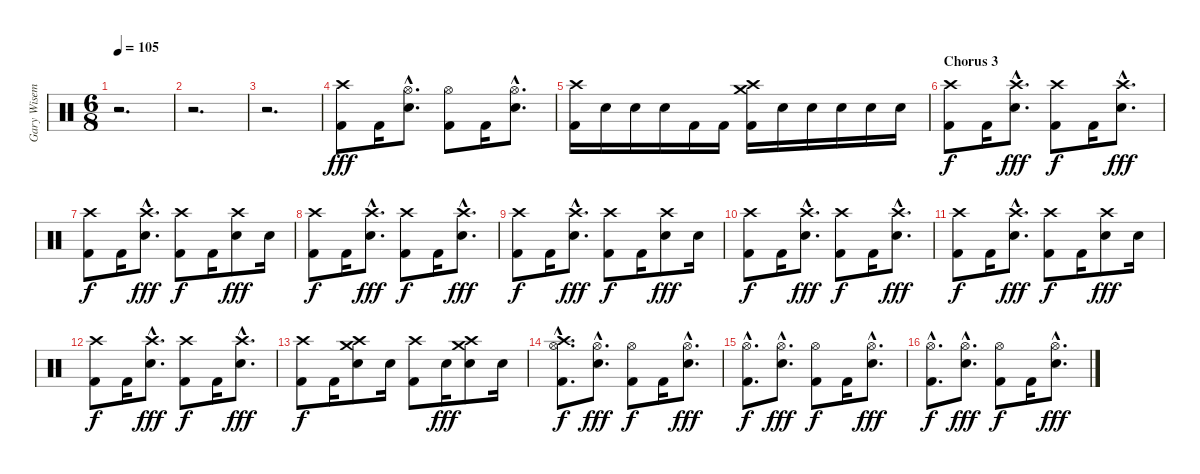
\track ("Gary Wiseman - Drums" "Gary Wisem") {instrument percussion}
\staff {score}
\articulation defaults
\ts (6 8)
\tempo 105
\clef neutral
\ks c
r.2{d dy f} |
r.2{d} |
r.2{d} |
("Crash high (hit)" "Kick (hit) 2").8{dy fff} "Kick (hit) 2".16 ("Hi-Hat (open)"{hac} "Electric Snare (hit)"{hac}).8{d} ("Hi-Hat (open)" "Kick (hit) 2").8 "Kick (hit) 2".16 ("Hi-Hat (open)"{hac} "Electric Snare (hit)"{hac}).8{d} |
("Crash high (hit)" "Kick (hit) 2").16 "Electric Snare (hit)".16 "Electric Snare (hit)".16 "Electric Snare (hit)".16 "Kick (hit) 2".16 "Kick (hit) 2".16 ("Crash medium (hit)" "Crash high (hit)" "Kick (hit) 2").16 "Electric Snare (hit)".16 "Electric Snare (hit)".16 "Electric Snare (hit)".16 "Electric Snare (hit)".16 "Electric Snare (hit)".16 |
\section ("" "Chorus 3")
("Crash high (hit)" "Kick (hit) 2").8{dy f} "Kick (hit) 2".16 ("Crash high (hit)"{hac} "Electric Snare (hit)"{hac}).8{d dy fff} ("Crash high (hit)" "Kick (hit) 2").8{dy f} "Kick (hit) 2".16 ("Crash high (hit)"{hac} "Electric Snare (hit)"{hac}).8{d dy fff} |
("Crash high (hit)" "Kick (hit) 2").8{dy f} "Kick (hit) 2".16 ("Crash high (hit)"{hac} "Electric Snare (hit)"{hac}).8{d dy fff} ("Crash high (hit)" "Kick (hit) 2").8{dy f} "Kick (hit) 2".16 ("Crash high (hit)" "Electric Snare (hit)").8{dy fff} "Electric Snare (hit)".16 |
("Crash high (hit)" "Kick (hit) 2").8{dy f} "Kick (hit) 2".16 ("Crash high (hit)"{hac} "Electric Snare (hit)"{hac}).8{d dy fff} ("Crash high (hit)" "Kick (hit) 2").8{dy f} "Kick (hit) 2".16 ("Crash high (hit)"{hac} "Electric Snare (hit)"{hac}).8{d dy fff} |
("Crash high (hit)" "Kick (hit) 2").8{dy f} "Kick (hit) 2".16 ("Crash high (hit)"{hac} "Electric Snare (hit)"{hac}).8{d dy fff} ("Crash high (hit)" "Kick (hit) 2").8{dy f} "Kick (hit) 2".16 ("Crash high (hit)" "Electric Snare (hit)").8{dy fff} "Electric Snare (hit)".16 |
("Crash high (hit)" "Kick (hit) 2").8{dy f} "Kick (hit) 2".16 ("Crash high (hit)"{hac} "Electric Snare (hit)"{hac}).8{d dy fff} ("Crash high (hit)" "Kick (hit) 2").8{dy f} "Kick (hit) 2".16 ("Crash high (hit)"{hac} "Electric Snare (hit)"{hac}).8{d dy fff} |
("Crash high (hit)" "Kick (hit) 2").8{dy f} "Kick (hit) 2".16 ("Crash high (hit)"{hac} "Electric Snare (hit)"{hac}).8{d dy fff} ("Crash high (hit)" "Kick (hit) 2").8{dy f} "Kick (hit) 2".16 ("Crash high (hit)" "Electric Snare (hit)").8{dy fff} "Electric Snare (hit)".16 |
("Crash high (hit)" "Kick (hit) 2").8{dy f} "Kick (hit) 2".16 ("Crash high (hit)"{hac} "Electric Snare (hit)"{hac}).8{d dy fff} ("Crash high (hit)" "Kick (hit) 2").8{dy f} "Kick (hit) 2".16 ("Crash high (hit)"{hac} "Electric Snare (hit)"{hac}).8{d dy fff} |
("Crash high (hit)" "Kick (hit) 2").8{dy f} "Kick (hit) 2".16 ("Crash medium (hit)" "Crash high (hit)" "Electric Snare (hit)").8 "Electric Snare (hit)".16 ("Crash high (hit)" "Kick (hit) 2").8 "Electric Snare (hit)".16{dy fff} ("Crash medium (hit)" "Crash high (hit)" "Electric Snare (hit)").8 "Electric Snare (hit)".16 |
("Crash high (hit)"{hac} "Hi-Hat (open)"{hac} "Kick (hit) 2"{hac}).8{d dy f} ("Hi-Hat (open)"{hac} "Electric Snare (hit)"{hac}).8{d dy fff} ("Hi-Hat (open)" "Kick (hit) 2").8{dy f} "Kick (hit) 2".16 ("Hi-Hat (open)"{hac} "Electric Snare (hit)"{hac}).8{d dy fff} |
("Hi-Hat (open)"{hac} "Kick (hit) 2"{hac}).8{d dy f} ("Hi-Hat (open)"{hac} "Electric Snare (hit)"{hac}).8{d dy fff} ("Hi-Hat (open)" "Kick (hit) 2").8{dy f} "Kick (hit) 2".16 ("Hi-Hat (open)"{hac} "Electric Snare (hit)"{hac}).8{d dy fff} |
("Hi-Hat (open)"{hac} "Kick (hit) 2"{hac}).8{d dy f} ("Hi-Hat (open)"{hac} "Electric Snare (hit)"{hac}).8{d dy fff} ("Hi-Hat (open)" "Kick (hit) 2").8{dy f} "Kick (hit) 2".16 ("Hi-Hat (open)"{hac} "Electric Snare (hit)"{hac}).8{d dy fff}
